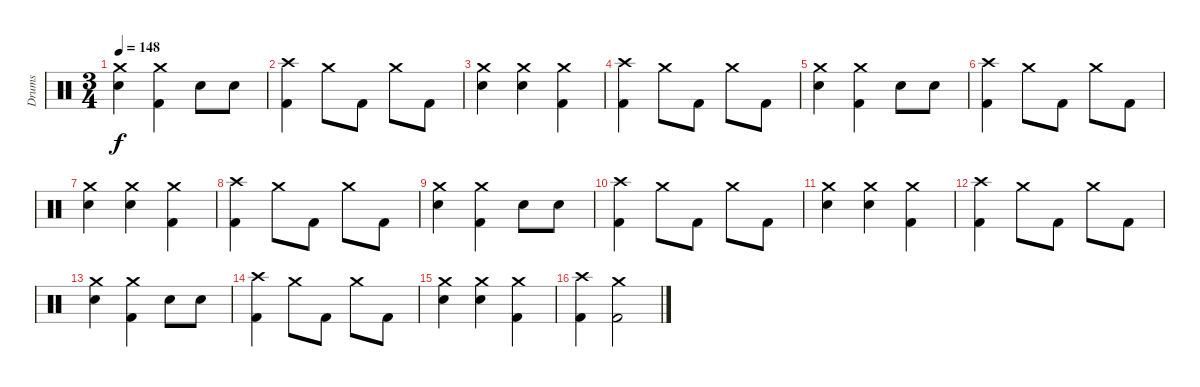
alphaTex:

\track ("Drums" "Drums") {instrument percussion}
\staff {score}
\articulation defaults
\ts (3 4)
\tempo 148
\clef neutral
\ks c
("Crash medium (hit)" "Snare (hit) 2").4{dy f} ("Crash medium (hit)" "Kick (hit) 2").4 "Snare (hit) 2".8 "Snare (hit) 2".8 |
("Crash high (hit)" "Kick (hit) 2").4 "Crash medium (hit)".8 "Kick (hit) 2".8 "Crash medium (hit)".8 "Kick (hit) 2".8 |
("Crash medium (hit)" "Snare (hit) 2").4 ("Crash medium (hit)" "Snare (hit) 2").4 ("Crash medium (hit)" "Kick (hit) 2").4 |
("Crash high (hit)" "Kick (hit) 2").4 "Crash medium (hit)".8 "Kick (hit) 2".8 "Crash medium (hit)".8 "Kick (hit) 2".8 |
("Crash medium (hit)" "Snare (hit) 2").4 ("Crash medium (hit)" "Kick (hit) 2").4 "Snare (hit) 2".8 "Snare (hit) 2".8 |
("Crash high (hit)" "Kick (hit) 2").4 "Crash medium (hit)".8 "Kick (hit) 2".8 "Crash medium (hit)".8 "Kick (hit) 2".8 |
("Crash medium (hit)" "Snare (hit) 2").4 ("Crash medium (hit)" "Snare (hit) 2").4 ("Crash medium (hit)" "Kick (hit) 2").4 |
("Crash high (hit)" "Kick (hit) 2").4 "Crash medium (hit)".8 "Kick (hit) 2".8 "Crash medium (hit)".8 "Kick (hit) 2".8 |
("Crash medium (hit)" "Snare (hit) 2").4 ("Crash medium (hit)" "Kick (hit) 2").4 "Snare (hit) 2".8 "Snare (hit) 2".8 |
("Crash high (hit)" "Kick (hit) 2").4 "Crash medium (hit)".8 "Kick (hit) 2".8 "Crash medium (hit)".8 "Kick (hit) 2".8 |
("Crash medium (hit)" "Snare (hit) 2").4 ("Crash medium (hit)" "Snare (hit) 2").4 ("Crash medium (hit)" "Kick (hit) 2").4 |
("Crash high (hit)" "Kick (hit) 2").4 "Crash medium (hit)".8 "Kick (hit) 2".8 "Crash medium (hit)".8 "Kick (hit) 2".8 |
("Crash medium (hit)" "Snare (hit) 2").4 ("Crash medium (hit)" "Kick (hit) 2").4 "Snare (hit) 2".8 "Snare (hit) 2".8 |
("Crash high (hit)" "Kick (hit) 2").4 "Crash medium (hit)".8 "Kick (hit) 2".8 "Crash medium (hit)".8 "Kick (hit) 2".8 |
("Crash medium (hit)" "Snare (hit) 2").4 ("Crash medium (hit)" "Snare (hit) 2").4 ("Crash medium (hit)" "Kick (hit) 2").4 |
("Crash high (hit)" "Kick (hit) 2").4 ("Crash medium (hit)" "Kick (hit) 2").2
